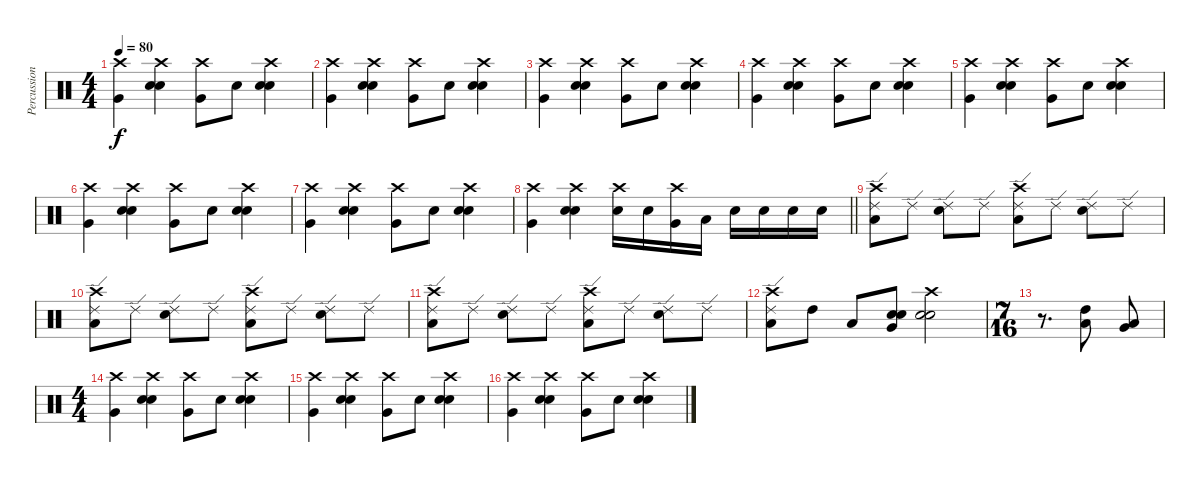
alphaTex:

\track ("Percussion" "Percussion") {instrument percussion}
\staff {score}
\articulation defaults
\ts (4 4)
\tempo 80
\clef neutral
\ks c
("Crash high (hit)" "Very Low Tom (hit)").4{dy f} ("Crash high (hit)" "Snare (hit) 2" "Snare (hit) 2").4 ("Crash high (hit)" "Very Low Tom (hit)").8 "Snare (hit) 2".8 ("Crash high (hit)" "Snare (hit) 2" "Snare (hit) 2").4 |
("Crash high (hit)" "Very Low Tom (hit)").4 ("Crash high (hit)" "Snare (hit) 2" "Snare (hit) 2").4 ("Crash high (hit)" "Very Low Tom (hit)").8 "Snare (hit) 2".8 ("Crash high (hit)" "Snare (hit) 2" "Snare (hit) 2").4 |
("Crash high (hit)" "Very Low Tom (hit)").4 ("Crash high (hit)" "Snare (hit) 2" "Snare (hit) 2").4 ("Crash high (hit)" "Very Low Tom (hit)").8 "Snare (hit) 2".8 ("Crash high (hit)" "Snare (hit) 2" "Snare (hit) 2").4 |
("Crash high (hit)" "Very Low Tom (hit)").4 ("Crash high (hit)" "Snare (hit) 2" "Snare (hit) 2").4 ("Crash high (hit)" "Very Low Tom (hit)").8 "Snare (hit) 2".8 ("Crash high (hit)" "Snare (hit) 2" "Snare (hit) 2").4 |
("Crash high (hit)" "Very Low Tom (hit)").4 ("Crash high (hit)" "Snare (hit) 2" "Snare (hit) 2").4 ("Crash high (hit)" "Very Low Tom (hit)").8 "Snare (hit) 2".8 ("Crash high (hit)" "Snare (hit) 2" "Snare (hit) 2").4 |
("Crash high (hit)" "Very Low Tom (hit)").4 ("Crash high (hit)" "Snare (hit) 2" "Snare (hit) 2").4 ("Crash high (hit)" "Very Low Tom (hit)").8 "Snare (hit) 2".8 ("Crash high (hit)" "Snare (hit) 2" "Snare (hit) 2").4 |
("Crash high (hit)" "Very Low Tom (hit)").4 ("Crash high (hit)" "Snare (hit) 2" "Snare (hit) 2").4 ("Crash high (hit)" "Very Low Tom (hit)").8 "Snare (hit) 2".8 ("Crash high (hit)" "Snare (hit) 2" "Snare (hit) 2").4 |
\barLineRight lightlight
("Crash high (hit)" "Very Low Tom (hit)").4 ("Crash high (hit)" "Snare (hit) 2" "Snare (hit) 2").4 ("Crash high (hit)" "Snare (hit) 2").16 "Snare (hit) 2".16 ("Crash high (hit)" "Very Low Tom (hit)").16 "Low Floor Tom (hit)".16 "Snare (hit) 2".16 "Snare (hit) 2".16 "Snare (hit) 2".16 "Snare (hit) 2".16 |
("Crash high (hit)" "Ride (edge) 2" "Low Floor Tom (hit)").8 "Ride (edge) 2".8 ("Ride (edge) 2" "Snare (hit) 2").8 "Ride (edge) 2".8 ("Crash high (hit)" "Ride (edge) 2" "Low Floor Tom (hit)").8 "Ride (edge) 2".8 ("Ride (edge) 2" "Snare (hit) 2").8 "Ride (edge) 2".8 |
("Crash high (hit)" "Ride (edge) 2" "Low Floor Tom (hit)").8 "Ride (edge) 2".8 ("Ride (edge) 2" "Snare (hit) 2").8 "Ride (edge) 2".8 ("Crash high (hit)" "Ride (edge) 2" "Low Floor Tom (hit)").8 "Ride (edge) 2".8 ("Ride (edge) 2" "Snare (hit) 2").8 "Ride (edge) 2".8 |
("Crash high (hit)" "Ride (edge) 2" "Low Floor Tom (hit)").8 "Ride (edge) 2".8 ("Ride (edge) 2" "Snare (hit) 2").8 "Ride (edge) 2".8 ("Crash high (hit)" "Ride (edge) 2" "Low Floor Tom (hit)").8 "Ride (edge) 2".8 ("Ride (edge) 2" "Snare (hit) 2").8 "Ride (edge) 2".8 |
("Crash high (hit)" "Ride (edge) 2" "Low Floor Tom (hit)").8 "High Tom (hit)".8 "Low Tom (hit)".8 ("Snare (hit) 2" "Snare (hit) 2" "Very Low Tom (hit)").8 ("Crash high (hit)" "Snare (hit) 2" "Snare (hit) 2").2 |
\ts (7 16)
r.8{d} ("Low Tom (hit)" "High Tom (hit)").8 ("Low Floor Tom (hit)" "Very Low Tom (hit)").8 |
\ts (4 4)
("Crash high (hit)" "Very Low Tom (hit)").4 ("Crash high (hit)" "Snare (hit) 2" "Snare (hit) 2").4 ("Crash high (hit)" "Very Low Tom (hit)").8 "Snare (hit) 2".8 ("Crash high (hit)" "Snare (hit) 2" "Snare (hit) 2").4 |
("Crash high (hit)" "Very Low Tom (hit)").4 ("Crash high (hit)" "Snare (hit) 2" "Snare (hit) 2").4 ("Crash high (hit)" "Very Low Tom (hit)").8 "Snare (hit) 2".8 ("Crash high (hit)" "Snare (hit) 2" "Snare (hit) 2").4 |
("Crash high (hit)" "Very Low Tom (hit)").4 ("Crash high (hit)" "Snare (hit) 2" "Snare (hit) 2").4 ("Crash high (hit)" "Very Low Tom (hit)").8 "Snare (hit) 2".8 ("Crash high (hit)" "Snare (hit) 2" "Snare (hit) 2").4
